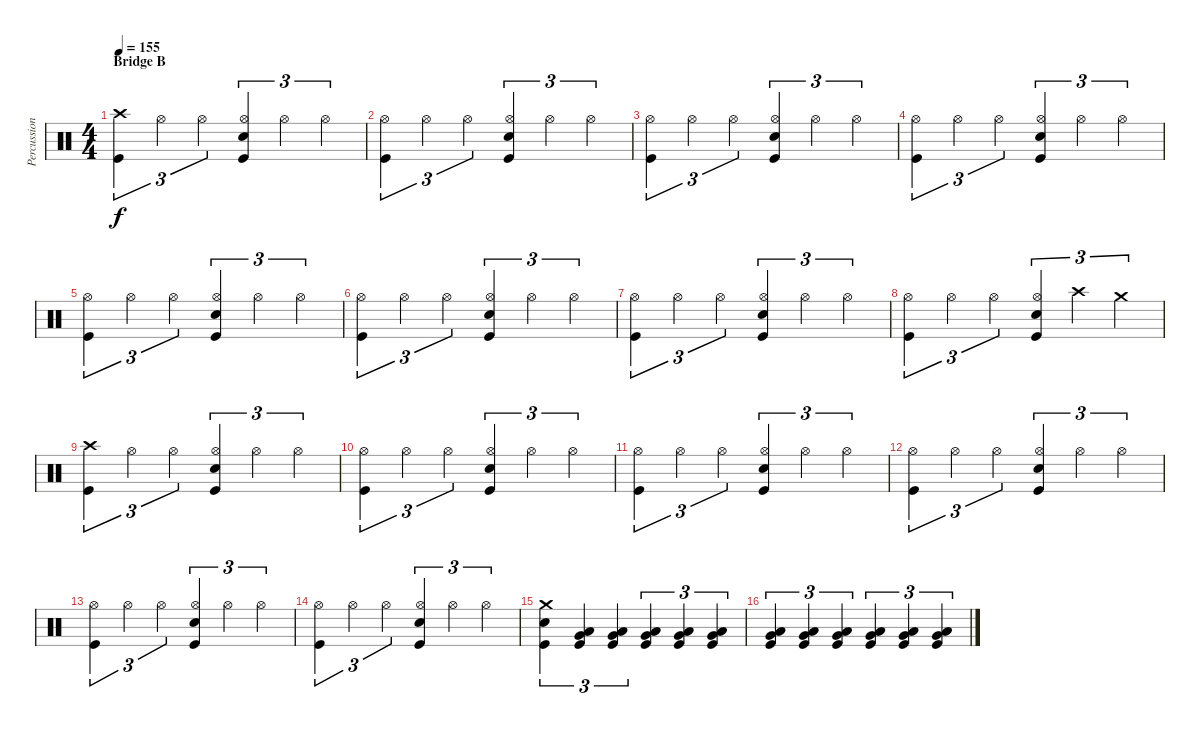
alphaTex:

\track ("Percussion" "Percussion") {instrument percussion}
\staff {score}
\articulation defaults
\ts (4 4)
\section ("" "Bridge B")
\tempo 155
\clef neutral
\ks c
("Crash high (hit)" "Kick (hit)").4{tu (3 2) dy f} "Hi-Hat (open)".4{tu (3 2)} "Hi-Hat (open)".4{tu (3 2)} ("Hi-Hat (open)" "Electric Snare (hit)" "Kick (hit)").4{tu (3 2)} "Hi-Hat (open)".4{tu (3 2)} "Hi-Hat (open)".4{tu (3 2)} |
("Hi-Hat (open)" "Kick (hit)").4{tu (3 2)} "Hi-Hat (open)".4{tu (3 2)} "Hi-Hat (open)".4{tu (3 2)} ("Hi-Hat (open)" "Electric Snare (hit)" "Kick (hit)").4{tu (3 2)} "Hi-Hat (open)".4{tu (3 2)} "Hi-Hat (open)".4{tu (3 2)} |
("Hi-Hat (open)" "Kick (hit)").4{tu (3 2)} "Hi-Hat (open)".4{tu (3 2)} "Hi-Hat (open)".4{tu (3 2)} ("Hi-Hat (open)" "Electric Snare (hit)" "Kick (hit)").4{tu (3 2)} "Hi-Hat (open)".4{tu (3 2)} "Hi-Hat (open)".4{tu (3 2)} |
("Hi-Hat (open)" "Kick (hit)").4{tu (3 2)} "Hi-Hat (open)".4{tu (3 2)} "Hi-Hat (open)".4{tu (3 2)} ("Hi-Hat (open)" "Electric Snare (hit)" "Kick (hit)").4{tu (3 2)} "Hi-Hat (open)".4{tu (3 2)} "Hi-Hat (open)".4{tu (3 2)} |
("Hi-Hat (open)" "Kick (hit)").4{tu (3 2)} "Hi-Hat (open)".4{tu (3 2)} "Hi-Hat (open)".4{tu (3 2)} ("Hi-Hat (open)" "Electric Snare (hit)" "Kick (hit)").4{tu (3 2)} "Hi-Hat (open)".4{tu (3 2)} "Hi-Hat (open)".4{tu (3 2)} |
("Hi-Hat (open)" "Kick (hit)").4{tu (3 2)} "Hi-Hat (open)".4{tu (3 2)} "Hi-Hat (open)".4{tu (3 2)} ("Hi-Hat (open)" "Electric Snare (hit)" "Kick (hit)").4{tu (3 2)} "Hi-Hat (open)".4{tu (3 2)} "Hi-Hat (open)".4{tu (3 2)} |
("Hi-Hat (open)" "Kick (hit)").4{tu (3 2)} "Hi-Hat (open)".4{tu (3 2)} "Hi-Hat (open)".4{tu (3 2)} ("Hi-Hat (open)" "Electric Snare (hit)" "Kick (hit)").4{tu (3 2)} "Hi-Hat (open)".4{tu (3 2)} "Hi-Hat (open)".4{tu (3 2)} |
("Hi-Hat (open)" "Kick (hit)").4{tu (3 2)} "Hi-Hat (open)".4{tu (3 2)} "Hi-Hat (open)".4{tu (3 2)} ("Hi-Hat (open)" "Electric Snare (hit)" "Kick (hit)").4{tu (3 2)} "Crash high (hit)".4{tu (3 2)} "Crash medium (hit)".4{tu (3 2)} |
("Crash high (hit)" "Kick (hit)").4{tu (3 2)} "Hi-Hat (open)".4{tu (3 2)} "Hi-Hat (open)".4{tu (3 2)} ("Hi-Hat (open)" "Electric Snare (hit)" "Kick (hit)").4{tu (3 2)} "Hi-Hat (open)".4{tu (3 2)} "Hi-Hat (open)".4{tu (3 2)} |
("Hi-Hat (open)" "Kick (hit)").4{tu (3 2)} "Hi-Hat (open)".4{tu (3 2)} "Hi-Hat (open)".4{tu (3 2)} ("Hi-Hat (open)" "Electric Snare (hit)" "Kick (hit)").4{tu (3 2)} "Hi-Hat (open)".4{tu (3 2)} "Hi-Hat (open)".4{tu (3 2)} |
("Hi-Hat (open)" "Kick (hit)").4{tu (3 2)} "Hi-Hat (open)".4{tu (3 2)} "Hi-Hat (open)".4{tu (3 2)} ("Hi-Hat (open)" "Electric Snare (hit)" "Kick (hit)").4{tu (3 2)} "Hi-Hat (open)".4{tu (3 2)} "Hi-Hat (open)".4{tu (3 2)} |
("Hi-Hat (open)" "Kick (hit)").4{tu (3 2)} "Hi-Hat (open)".4{tu (3 2)} "Hi-Hat (open)".4{tu (3 2)} ("Hi-Hat (open)" "Electric Snare (hit)" "Kick (hit)").4{tu (3 2)} "Hi-Hat (open)".4{tu (3 2)} "Hi-Hat (open)".4{tu (3 2)} |
("Hi-Hat (open)" "Kick (hit)").4{tu (3 2)} "Hi-Hat (open)".4{tu (3 2)} "Hi-Hat (open)".4{tu (3 2)} ("Hi-Hat (open)" "Electric Snare (hit)" "Kick (hit)").4{tu (3 2)} "Hi-Hat (open)".4{tu (3 2)} "Hi-Hat (open)".4{tu (3 2)} |
("Hi-Hat (open)" "Kick (hit)").4{tu (3 2)} "Hi-Hat (open)".4{tu (3 2)} "Hi-Hat (open)".4{tu (3 2)} ("Hi-Hat (open)" "Electric Snare (hit)" "Kick (hit)").4{tu (3 2)} "Hi-Hat (open)".4{tu (3 2)} "Hi-Hat (open)".4{tu (3 2)} |
("Crash medium (hit)" "Electric Snare (hit)" "Kick (hit)").4{tu (3 2)} ("Very Low Tom (hit)" "Low Floor Tom (hit)" "Kick (hit)").4{tu (3 2)} ("Very Low Tom (hit)" "Low Floor Tom (hit)" "Kick (hit)").4{tu (3 2)} ("Very Low Tom (hit)" "Low Floor Tom (hit)" "Kick (hit)").4{tu (3 2)} ("Very Low Tom (hit)" "Low Floor Tom (hit)" "Kick (hit)").4{tu (3 2)} ("Very Low Tom (hit)" "Low Floor Tom (hit)" "Kick (hit)").4{tu (3 2)} |
("Very Low Tom (hit)" "Low Floor Tom (hit)" "Kick (hit)").4{tu (3 2)} ("Very Low Tom (hit)" "Low Floor Tom (hit)" "Kick (hit)").4{tu (3 2)} ("Very Low Tom (hit)" "Low Floor Tom (hit)" "Kick (hit)").4{tu (3 2)} ("Very Low Tom (hit)" "Low Floor Tom (hit)" "Kick (hit)").4{tu (3 2)} ("Very Low Tom (hit)" "Low Floor Tom (hit)" "Kick (hit)").4{tu (3 2)} ("Very Low Tom (hit)" "Low Floor Tom (hit)" "Kick (hit)").4{tu (3 2)}
